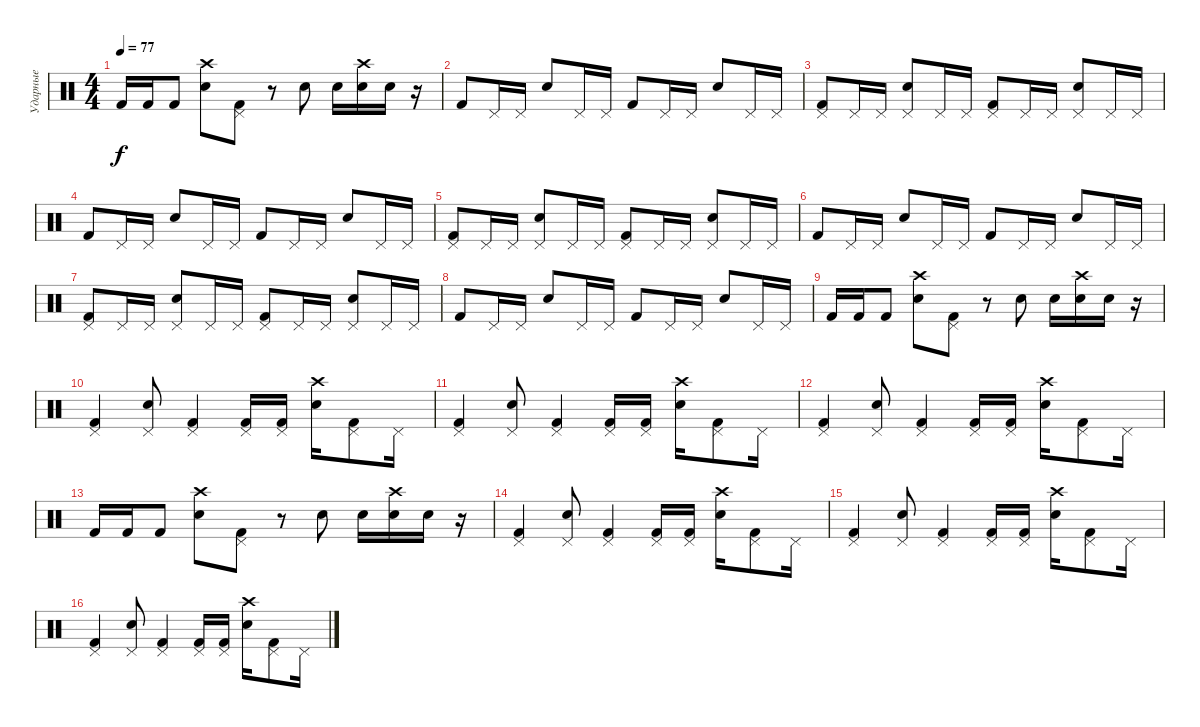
\track ("Ударные" "Ударные") {instrument percussion}
\staff {score}
\articulation defaults
\ts (4 4)
\tempo 77
\clef neutral
\ks c "Kick (hit) 2".16{dy f} "Kick (hit) 2".16 "Kick (hit) 2".8
("Snare (hit) 2" "Crash high (hit)").8 ("Kick (hit) 2" "Pedal Hi-Hat (hit)").8 r.8 "Snare (hit) 2".8 "Snare (hit) 2".16 ("Snare (hit) 2" "Crash high (hit)").16 "Snare (hit) 2".16 r.16 |
"Kick (hit) 2".8 "Pedal Hi-Hat (hit)".16 "Pedal Hi-Hat (hit)".16 "Snare (hit) 2".8 "Pedal Hi-Hat (hit)".16 "Pedal Hi-Hat (hit)".16 "Kick (hit) 2".8 "Pedal Hi-Hat (hit)".16 "Pedal Hi-Hat (hit)".16 "Snare (hit) 2".8 "Pedal Hi-Hat (hit)".16 "Pedal Hi-Hat (hit)".16 |
("Kick (hit) 2" "Pedal Hi-Hat (hit)").8 "Pedal Hi-Hat (hit)".16 "Pedal Hi-Hat (hit)".16 ("Snare (hit) 2" "Pedal Hi-Hat (hit)").8 "Pedal Hi-Hat (hit)".16 "Pedal Hi-Hat (hit)".16 ("Kick (hit) 2" "Pedal Hi-Hat (hit)").8 "Pedal Hi-Hat (hit)".16 "Pedal Hi-Hat (hit)".16 ("Snare (hit) 2" "Pedal Hi-Hat (hit)").8 "Pedal Hi-Hat (hit)".16 "Pedal Hi-Hat (hit)".16 |
"Kick (hit) 2".8 "Pedal Hi-Hat (hit)".16 "Pedal Hi-Hat (hit)".16 "Snare (hit) 2".8 "Pedal Hi-Hat (hit)".16 "Pedal Hi-Hat (hit)".16 "Kick (hit) 2".8 "Pedal Hi-Hat (hit)".16 "Pedal Hi-Hat (hit)".16 "Snare (hit) 2".8 "Pedal Hi-Hat (hit)".16 "Pedal Hi-Hat (hit)".16 |
("Kick (hit) 2" "Pedal Hi-Hat (hit)").8 "Pedal Hi-Hat (hit)".16 "Pedal Hi-Hat (hit)".16 ("Snare (hit) 2" "Pedal Hi-Hat (hit)").8 "Pedal Hi-Hat (hit)".16 "Pedal Hi-Hat (hit)".16 ("Kick (hit) 2" "Pedal Hi-Hat (hit)").8 "Pedal Hi-Hat (hit)".16 "Pedal Hi-Hat (hit)".16 ("Snare (hit) 2" "Pedal Hi-Hat (hit)").8 "Pedal Hi-Hat (hit)".16 "Pedal Hi-Hat (hit)".16 |
"Kick (hit) 2".8 "Pedal Hi-Hat (hit)".16 "Pedal Hi-Hat (hit)".16 "Snare (hit) 2".8 "Pedal Hi-Hat (hit)".16 "Pedal Hi-Hat (hit)".16 "Kick (hit) 2".8 "Pedal Hi-Hat (hit)".16 "Pedal Hi-Hat (hit)".16 "Snare (hit) 2".8 "Pedal Hi-Hat (hit)".16 "Pedal Hi-Hat (hit)".16 |
("Kick (hit) 2" "Pedal Hi-Hat (hit)").8 "Pedal Hi-Hat (hit)".16 "Pedal Hi-Hat (hit)".16 ("Snare (hit) 2" "Pedal Hi-Hat (hit)").8 "Pedal Hi-Hat (hit)".16 "Pedal Hi-Hat (hit)".16 ("Kick (hit) 2" "Pedal Hi-Hat (hit)").8 "Pedal Hi-Hat (hit)".16 "Pedal Hi-Hat (hit)".16 ("Snare (hit) 2" "Pedal Hi-Hat (hit)").8 "Pedal Hi-Hat (hit)".16 "Pedal Hi-Hat (hit)".16 |
"Kick (hit) 2".8 "Pedal Hi-Hat (hit)".16 "Pedal Hi-Hat (hit)".16 "Snare (hit) 2".8 "Pedal Hi-Hat (hit)".16 "Pedal Hi-Hat (hit)".16 "Kick (hit) 2".8 "Pedal Hi-Hat (hit)".16 "Pedal Hi-Hat (hit)".16 "Snare (hit) 2".8 "Pedal Hi-Hat (hit)".16 "Pedal Hi-Hat (hit)".16 |
"Kick (hit) 2".16 "Kick (hit) 2".16 "Kick (hit) 2".8 ("Snare (hit) 2" "Crash high (hit)").8 ("Kick (hit) 2" "Pedal Hi-Hat (hit)").8 r.8 "Snare (hit) 2".8 "Snare (hit) 2".16 ("Snare (hit) 2" "Crash high (hit)").16 "Snare (hit) 2".16 r.16 |
("Kick (hit) 2" "Pedal Hi-Hat (hit)").4 ("Snare (hit) 2" "Pedal Hi-Hat (hit)").8 ("Kick (hit) 2" "Pedal Hi-Hat (hit)").4 ("Kick (hit) 2" "Pedal Hi-Hat (hit)").16 ("Kick (hit) 2" "Pedal Hi-Hat (hit)").16 ("Snare (hit) 2" "Crash high (hit)").16 ("Kick (hit) 2" "Pedal Hi-Hat (hit)").8 "Pedal Hi-Hat (hit)".16 |
("Kick (hit) 2" "Pedal Hi-Hat (hit)").4 ("Snare (hit) 2" "Pedal Hi-Hat (hit)").8 ("Kick (hit) 2" "Pedal Hi-Hat (hit)").4 ("Kick (hit) 2" "Pedal Hi-Hat (hit)").16 ("Kick (hit) 2" "Pedal Hi-Hat (hit)").16 ("Snare (hit) 2" "Crash high (hit)").16 ("Kick (hit) 2" "Pedal Hi-Hat (hit)").8 "Pedal Hi-Hat (hit)".16 |
("Kick (hit) 2" "Pedal Hi-Hat (hit)").4 ("Snare (hit) 2" "Pedal Hi-Hat (hit)").8 ("Kick (hit) 2" "Pedal Hi-Hat (hit)").4 ("Kick (hit) 2" "Pedal Hi-Hat (hit)").16 ("Kick (hit) 2" "Pedal Hi-Hat (hit)").16 ("Snare (hit) 2" "Crash high (hit)").16 ("Kick (hit) 2" "Pedal Hi-Hat (hit)").8 "Pedal Hi-Hat (hit)".16 |
"Kick (hit) 2".16 "Kick (hit) 2".16 "Kick (hit) 2".8 ("Snare (hit) 2" "Crash high (hit)").8 ("Kick (hit) 2" "Pedal Hi-Hat (hit)").8 r.8 "Snare (hit) 2".8 "Snare (hit) 2".16 ("Snare (hit) 2" "Crash high (hit)").16 "Snare (hit) 2".16 r.16 |
("Kick (hit) 2" "Pedal Hi-Hat (hit)").4 ("Snare (hit) 2" "Pedal Hi-Hat (hit)").8 ("Kick (hit) 2" "Pedal Hi-Hat (hit)").4 ("Kick (hit) 2" "Pedal Hi-Hat (hit)").16 ("Kick (hit) 2" "Pedal Hi-Hat (hit)").16 ("Snare (hit) 2" "Crash high (hit)").16 ("Kick (hit) 2" "Pedal Hi-Hat (hit)").8 "Pedal Hi-Hat (hit)".16 |
("Kick (hit) 2" "Pedal Hi-Hat (hit)").4 ("Snare (hit) 2" "Pedal Hi-Hat (hit)").8 ("Kick (hit) 2" "Pedal Hi-Hat (hit)").4 ("Kick (hit) 2" "Pedal Hi-Hat (hit)").16 ("Kick (hit) 2" "Pedal Hi-Hat (hit)").16 ("Snare (hit) 2" "Crash high (hit)").16 ("Kick (hit) 2" "Pedal Hi-Hat (hit)").8 "Pedal Hi-Hat (hit)".16 |
("Kick (hit) 2" "Pedal Hi-Hat (hit)").4 ("Snare (hit) 2" "Pedal Hi-Hat (hit)").8 ("Kick (hit) 2" "Pedal Hi-Hat (hit)").4 ("Kick (hit) 2" "Pedal Hi-Hat (hit)").16 ("Kick (hit) 2" "Pedal Hi-Hat (hit)").16 ("Snare (hit) 2" "Crash high (hit)").16 ("Kick (hit) 2" "Pedal Hi-Hat (hit)").8 "Pedal Hi-Hat (hit)".16
